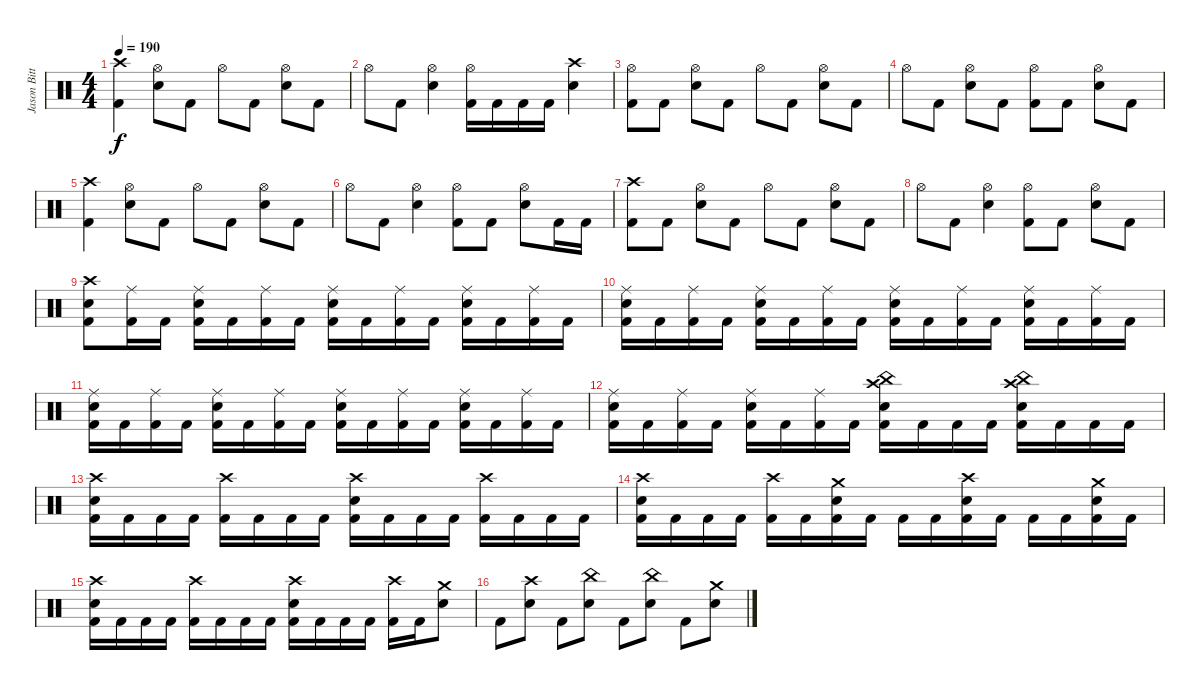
\track ("Jason Bittner" "Jason Bitt") {instrument percussion}
\staff {score}
\articulation defaults
\ts (4 4)
\tempo 190
\clef neutral
\ks c
("Crash high (hit)" "Kick (hit) 2").4{dy f} ("Hi-Hat (open)" "Electric Snare (hit)").8 "Kick (hit) 2".8 "Hi-Hat (open)".8 "Kick (hit) 2".8 ("Hi-Hat (open)" "Electric Snare (hit)").8 "Kick (hit) 2".8 |
"Hi-Hat (open)".8 "Kick (hit) 2".8 ("Hi-Hat (open)" "Electric Snare (hit)").4 ("Hi-Hat (open)" "Kick (hit) 2").16 "Kick (hit) 2".16 "Kick (hit) 2".16 "Kick (hit) 2".16 ("Crash high (hit)" "Electric Snare (hit)").4 |
("Hi-Hat (open)" "Kick (hit) 2").8 "Kick (hit) 2".8 ("Hi-Hat (open)" "Electric Snare (hit)").8 "Kick (hit) 2".8 "Hi-Hat (open)".8 "Kick (hit) 2".8 ("Hi-Hat (open)" "Electric Snare (hit)").8 "Kick (hit) 2".8 |
"Hi-Hat (open)".8 "Kick (hit) 2".8 ("Hi-Hat (open)" "Electric Snare (hit)").8 "Kick (hit) 2".8 ("Hi-Hat (open)" "Kick (hit) 2").8 "Kick (hit) 2".8 ("Hi-Hat (open)" "Electric Snare (hit)").8 "Kick (hit) 2".8 |
("Crash high (hit)" "Kick (hit) 2").4 ("Hi-Hat (open)" "Electric Snare (hit)").8 "Kick (hit) 2".8 "Hi-Hat (open)".8 "Kick (hit) 2".8 ("Hi-Hat (open)" "Electric Snare (hit)").8 "Kick (hit) 2".8 |
"Hi-Hat (open)".8 "Kick (hit) 2".8 ("Hi-Hat (open)" "Electric Snare (hit)").4 ("Hi-Hat (open)" "Kick (hit) 2").8 "Kick (hit) 2".8 ("Hi-Hat (open)" "Electric Snare (hit)").8 "Kick (hit) 2".16 "Kick (hit) 2".16 |
("Crash high (hit)" "Kick (hit) 2").8 "Kick (hit) 2".8 ("Hi-Hat (open)" "Electric Snare (hit)").8 "Kick (hit) 2".8 "Hi-Hat (open)".8 "Kick (hit) 2".8 ("Hi-Hat (open)" "Electric Snare (hit)").8 "Kick (hit) 2".8 |
"Hi-Hat (open)".8 "Kick (hit) 2".8 ("Hi-Hat (open)" "Electric Snare (hit)").4 ("Hi-Hat (open)" "Kick (hit) 2").8 "Kick (hit) 2".8 ("Hi-Hat (open)" "Electric Snare (hit)").8 "Kick (hit) 2".8 |
("Crash high (hit)" "Electric Snare (hit)" "Kick (hit) 2").8 ("Ride (middle)" "Kick (hit) 2").16 "Kick (hit) 2".16 ("Ride (middle)" "Electric Snare (hit)" "Kick (hit) 2").16 "Kick (hit) 2".16 ("Ride (middle)" "Kick (hit) 2").16 "Kick (hit) 2".16 ("Ride (middle)" "Electric Snare (hit)" "Kick (hit) 2").16 "Kick (hit) 2".16 ("Ride (middle)" "Kick (hit) 2").16 "Kick (hit) 2".16 ("Ride (middle)" "Electric Snare (hit)" "Kick (hit) 2").16 "Kick (hit) 2".16 ("Ride (middle)" "Kick (hit) 2").16 "Kick (hit) 2".16 |
("Ride (middle)" "Electric Snare (hit)" "Kick (hit) 2").16 "Kick (hit) 2".16 ("Ride (middle)" "Kick (hit) 2").16 "Kick (hit) 2".16 ("Ride (middle)" "Electric Snare (hit)" "Kick (hit) 2").16 "Kick (hit) 2".16 ("Ride (middle)" "Kick (hit) 2").16 "Kick (hit) 2".16 ("Ride (middle)" "Electric Snare (hit)" "Kick (hit) 2").16 "Kick (hit) 2".16 ("Ride (middle)" "Kick (hit) 2").16 "Kick (hit) 2".16 ("Ride (middle)" "Electric Snare (hit)" "Kick (hit) 2").16 "Kick (hit) 2".16 ("Ride (middle)" "Kick (hit) 2").16 "Kick (hit) 2".16 |
("Ride (middle)" "Electric Snare (hit)" "Kick (hit) 2").16 "Kick (hit) 2".16 ("Ride (middle)" "Kick (hit) 2").16 "Kick (hit) 2".16 ("Ride (middle)" "Electric Snare (hit)" "Kick (hit) 2").16 "Kick (hit) 2".16 ("Ride (middle)" "Kick (hit) 2").16 "Kick (hit) 2".16 ("Ride (middle)" "Electric Snare (hit)" "Kick (hit) 2").16 "Kick (hit) 2".16 ("Ride (middle)" "Kick (hit) 2").16 "Kick (hit) 2".16 ("Ride (middle)" "Electric Snare (hit)" "Kick (hit) 2").16 "Kick (hit) 2".16 ("Ride (middle)" "Kick (hit) 2").16 "Kick (hit) 2".16 |
("Ride (middle)" "Electric Snare (hit)" "Kick (hit) 2").16 "Kick (hit) 2".16 ("Ride (middle)" "Kick (hit) 2").16 "Kick (hit) 2".16 ("Ride (middle)" "Electric Snare (hit)" "Kick (hit) 2").16 "Kick (hit) 2".16 ("Ride (middle)" "Kick (hit) 2").16 "Kick (hit) 2".16 ("China (hit)" "Crash high (hit)" "Electric Snare (hit)" "Kick (hit) 2").16 "Kick (hit) 2".16 "Kick (hit) 2".16 "Kick (hit) 2".16 ("China (hit)" "Crash high (hit)" "Electric Snare (hit)" "Kick (hit) 2").16 "Kick (hit) 2".16 "Kick (hit) 2".16 "Kick (hit) 2".16 |
("Crash high (hit)" "Electric Snare (hit)" "Kick (hit) 2").16 "Kick (hit) 2".16 "Kick (hit) 2".16 "Kick (hit) 2".16 ("Crash high (hit)" "Kick (hit) 2").16 "Kick (hit) 2".16 "Kick (hit) 2".16 "Kick (hit) 2".16 ("Crash high (hit)" "Electric Snare (hit)" "Kick (hit) 2").16 "Kick (hit) 2".16 "Kick (hit) 2".16 "Kick (hit) 2".16 ("Crash high (hit)" "Kick (hit) 2").16 "Kick (hit) 2".16 "Kick (hit) 2".16 "Kick (hit) 2".16 |
("Crash high (hit)" "Electric Snare (hit)" "Kick (hit) 2").16 "Kick (hit) 2".16 "Kick (hit) 2".16 "Kick (hit) 2".16 ("Crash high (hit)" "Kick (hit) 2").16 "Kick (hit) 2".16 ("Crash medium (hit)" "Electric Snare (hit)" "Kick (hit) 2").16 "Kick (hit) 2".16 "Kick (hit) 2".16 "Kick (hit) 2".16 ("Crash high (hit)" "Electric Snare (hit)" "Kick (hit) 2").16 "Kick (hit) 2".16 "Kick (hit) 2".16 "Kick (hit) 2".16 ("Crash medium (hit)" "Electric Snare (hit)" "Kick (hit) 2").16 "Kick (hit) 2".16 |
("Crash high (hit)" "Electric Snare (hit)" "Kick (hit) 2").16 "Kick (hit) 2".16 "Kick (hit) 2".16 "Kick (hit) 2".16 ("Crash high (hit)" "Kick (hit) 2").16 "Kick (hit) 2".16 "Kick (hit) 2".16 "Kick (hit) 2".16 ("Crash high (hit)" "Electric Snare (hit)" "Kick (hit) 2").16 "Kick (hit) 2".16 "Kick (hit) 2".16 "Kick (hit) 2".16 ("Crash high (hit)" "Kick (hit) 2").16 "Kick (hit) 2".16 ("Crash medium (hit)" "Electric Snare (hit)").8 |
"Kick (hit) 2".8 ("Crash high (hit)" "Electric Snare (hit)").8 "Kick (hit) 2".8 ("China (hit)" "Electric Snare (hit)").8 "Kick (hit) 2".8 ("China (hit)" "Electric Snare (hit)").8 "Kick (hit) 2".8 ("Crash medium (hit)" "Electric Snare (hit)").8
